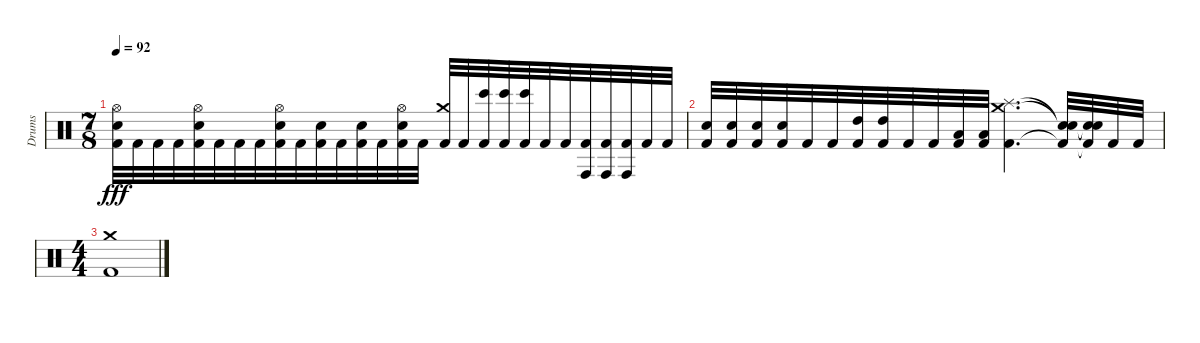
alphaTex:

\track ("Drums" "Drums") {instrument percussion}
\staff {score}
\articulation defaults
\ts (7 8)
\tempo 92
\clef neutral
\ks c
("Hi-Hat (open)" "Snare (hit) 2" "Kick (hit) 2").32{dy fff} "Kick (hit) 2".32 "Kick (hit) 2".32 "Kick (hit) 2".32 ("Hi-Hat (open)" "Snare (hit) 2" "Kick (hit) 2").32 "Kick (hit) 2".32 "Kick (hit) 2".32 "Kick (hit) 2".32 ("Hi-Hat (open)" "Snare (hit) 2" "Kick (hit) 2").32 "Kick (hit) 2".32 ("Snare (hit) 2" "Kick (hit) 2").32 "Kick (hit) 2".32 ("Snare (hit) 2" "Kick (hit) 2").32 "Kick (hit) 2".32 ("Hi-Hat (open)" "Snare (hit) 2" "Kick (hit) 2").32 "Kick (hit) 2".32 ("Crash medium (hit)" "Kick (hit) 2").32 "Kick (hit) 2".32 ("Bongo High (hit)" "Kick (hit) 2").32 ("Bongo High (hit)" "Kick (hit) 2").32 ("Bongo High (hit)" "Kick (hit) 2").32 "Kick (hit) 2".32 "Kick (hit) 2".32 ("Conga high (hit)" "Kick (hit) 2").32 ("Conga high (hit)" "Kick (hit) 2").32 ("Conga high (hit)" "Kick (hit) 2").32 "Kick (hit) 2".32 "Kick (hit) 2".32 |
("Snare (hit) 2" "Kick (hit) 2").32 ("Snare (hit) 2" "Kick (hit) 2").32 ("Snare (hit) 2" "Kick (hit) 2").32 ("Snare (hit) 2" "Kick (hit) 2").32 "Kick (hit) 2".32 "Kick (hit) 2".32 ("High Tom (hit)" "Kick (hit) 2").32 ("High Tom (hit)" "Kick (hit) 2").32 "Kick (hit) 2".32 "Kick (hit) 2".32 ("Low Tom (hit)" "Kick (hit) 2").32 ("Low Tom (hit)" "Kick (hit) 2").32 ("Splash (hit)" "Crash medium (hit)" "Kick (hit) 2").4{d} ("Snare (hit)"{t} "Snare (hit)"{t} "Kick (hit) 2"{t}).32 ("Snare (hit)"{t} "Snare (hit)"{t} "Kick (hit) 2"{t}).32 "Kick (hit) 2".32 "Kick (hit) 2".32 |
\ts (4 4)
("Crash medium (hit)" "Kick (hit) 2").1
